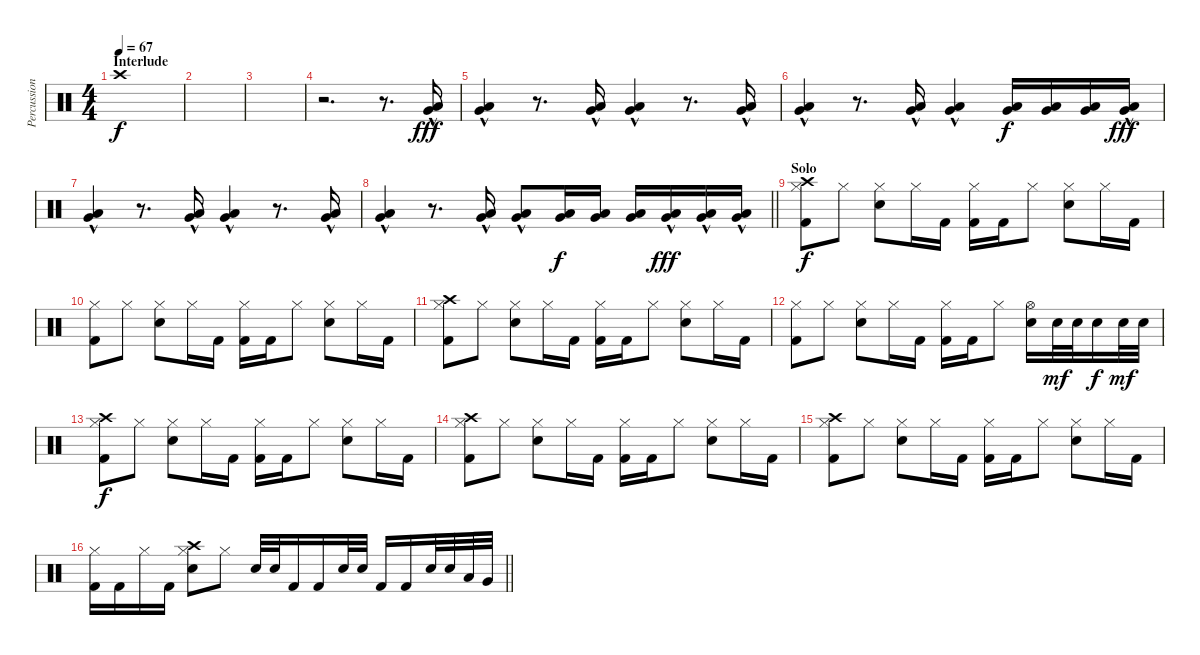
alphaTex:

\track ("Percussion" "Percussion") {instrument percussion}
\staff {score}
\articulation defaults
\ts (4 4)
\section ("" "Interlude")
\tempo 67
\clef neutral
\ks c "Crash high (hit)".1{dy f}
|
|
|
r.2{d} r.8{d} ("Very Low Tom (hit)"{hac} "Low Floor Tom (hit)"{hac}).16{dy fff} |
("Very Low Tom (hit)"{hac} "Low Floor Tom (hit)"{hac}).4 r.8{d} ("Very Low Tom (hit)"{hac} "Low Floor Tom (hit)"{hac}).16 ("Very Low Tom (hit)"{hac} "Low Floor Tom (hit)"{hac}).4 r.8{d} ("Very Low Tom (hit)"{hac} "Low Floor Tom (hit)"{hac}).16 |
("Very Low Tom (hit)"{hac} "Low Floor Tom (hit)"{hac}).4 r.8{d} ("Very Low Tom (hit)"{hac} "Low Floor Tom (hit)"{hac}).16 ("Very Low Tom (hit)"{hac} "Low Floor Tom (hit)"{hac}).4 ("Very Low Tom (hit)" "Low Floor Tom (hit)").16{dy f} ("Very Low Tom (hit)" "Low Floor Tom (hit)").16 ("Very Low Tom (hit)" "Low Floor Tom (hit)").16 ("Very Low Tom (hit)"{hac} "Low Floor Tom (hit)"{hac}).16{dy fff} |
("Very Low Tom (hit)"{hac} "Low Floor Tom (hit)"{hac}).4 r.8{d} ("Very Low Tom (hit)"{hac} "Low Floor Tom (hit)"{hac}).16 ("Very Low Tom (hit)"{hac} "Low Floor Tom (hit)"{hac}).4 r.8{d} ("Very Low Tom (hit)"{hac} "Low Floor Tom (hit)"{hac}).16 |
\barLineRight lightlight
("Very Low Tom (hit)"{hac} "Low Floor Tom (hit)"{hac}).4 r.8{d} ("Very Low Tom (hit)"{hac} "Low Floor Tom (hit)"{hac}).16 ("Very Low Tom (hit)"{hac} "Low Floor Tom (hit)"{hac}).8 ("Very Low Tom (hit)" "Low Floor Tom (hit)").16{dy f} ("Very Low Tom (hit)" "Low Floor Tom (hit)").16 ("Very Low Tom (hit)" "Low Floor Tom (hit)").16 ("Very Low Tom (hit)"{hac} "Low Floor Tom (hit)"{hac}).16{dy fff} ("Very Low Tom (hit)"{hac} "Low Floor Tom (hit)"{hac}).16 ("Very Low Tom (hit)"{hac} "Low Floor Tom (hit)"{hac}).16 |
\section ("" "Solo")
("Crash high (hit)" "Hi-Hat (closed)" "Kick (hit) 2").8{dy f} "Hi-Hat (closed)".8 ("Hi-Hat (closed)" "Snare (hit) 2").8 "Hi-Hat (closed)".16 "Kick (hit) 2".16 ("Hi-Hat (closed)" "Kick (hit) 2").16 "Kick (hit) 2".16 "Hi-Hat (closed)".8 ("Hi-Hat (closed)" "Snare (hit) 2").8 "Hi-Hat (closed)".16 "Kick (hit) 2".16 |
("Hi-Hat (closed)" "Kick (hit) 2").8 "Hi-Hat (closed)".8 ("Hi-Hat (closed)" "Snare (hit) 2").8 "Hi-Hat (closed)".16 "Kick (hit) 2".16 ("Hi-Hat (closed)" "Kick (hit) 2").16 "Kick (hit) 2".16 "Hi-Hat (closed)".8 ("Hi-Hat (closed)" "Snare (hit) 2").8 "Hi-Hat (closed)".16 "Kick (hit) 2".16 |
("Crash high (hit)" "Hi-Hat (closed)" "Kick (hit) 2").8 "Hi-Hat (closed)".8 ("Hi-Hat (closed)" "Snare (hit) 2").8 "Hi-Hat (closed)".16 "Kick (hit) 2".16 ("Hi-Hat (closed)" "Kick (hit) 2").16 "Kick (hit) 2".16 "Hi-Hat (closed)".8 ("Hi-Hat (closed)" "Snare (hit) 2").8 "Hi-Hat (closed)".16 "Kick (hit) 2".16 |
("Hi-Hat (closed)" "Kick (hit) 2").8 "Hi-Hat (closed)".8 ("Hi-Hat (closed)" "Snare (hit) 2").8 "Hi-Hat (closed)".16 "Kick (hit) 2".16 ("Hi-Hat (closed)" "Kick (hit) 2").16 "Kick (hit) 2".16 "Hi-Hat (closed)".8 ("Hi-Hat (open)" "Snare (hit) 2").16 "Snare (hit) 2".32{dy mf} "Snare (hit) 2".32 "Snare (hit) 2".16{dy f} "Snare (hit) 2".32{dy mf} "Snare (hit) 2".32 |
("Crash high (hit)" "Hi-Hat (closed)" "Kick (hit) 2").8{dy f} "Hi-Hat (closed)".8 ("Hi-Hat (closed)" "Snare (hit) 2").8 "Hi-Hat (closed)".16 "Kick (hit) 2".16 ("Hi-Hat (closed)" "Kick (hit) 2").16 "Kick (hit) 2".16 "Hi-Hat (closed)".8 ("Hi-Hat (closed)" "Snare (hit) 2").8 "Hi-Hat (closed)".16 "Kick (hit) 2".16 |
("Crash high (hit)" "Hi-Hat (closed)" "Kick (hit) 2").8 "Hi-Hat (closed)".8 ("Hi-Hat (closed)" "Snare (hit) 2").8 "Hi-Hat (closed)".16 "Kick (hit) 2".16 ("Hi-Hat (closed)" "Kick (hit) 2").16 "Kick (hit) 2".16 "Hi-Hat (closed)".8 ("Hi-Hat (closed)" "Snare (hit) 2").8 "Hi-Hat (closed)".16 "Kick (hit) 2".16 |
("Crash high (hit)" "Hi-Hat (closed)" "Kick (hit) 2").8 "Hi-Hat (closed)".8 ("Hi-Hat (closed)" "Snare (hit) 2").8 "Hi-Hat (closed)".16 "Kick (hit) 2".16 ("Hi-Hat (closed)" "Kick (hit) 2").16 "Kick (hit) 2".16 "Hi-Hat (closed)".8 ("Hi-Hat (closed)" "Snare (hit) 2").8 "Hi-Hat (closed)".16 "Kick (hit) 2".16 |
\barLineRight lightlight
("Hi-Hat (closed)" "Kick (hit) 2").16 "Kick (hit) 2".16 "Hi-Hat (closed)".16 "Kick (hit) 2".16 ("Crash high (hit)" "Hi-Hat (closed)" "Snare (hit) 2").8 "Hi-Hat (closed)".8 "Snare (hit) 2".32 "Snare (hit) 2".32 "Kick (hit) 2".16 "Kick (hit) 2".16 "Snare (hit) 2".32 "Snare (hit) 2".32 "Kick (hit) 2".16 "Kick (hit) 2".16 "Snare (hit) 2".32 "Snare (hit) 2".32 "Low Tom (hit)".32 "Very Low Tom (hit)".32
